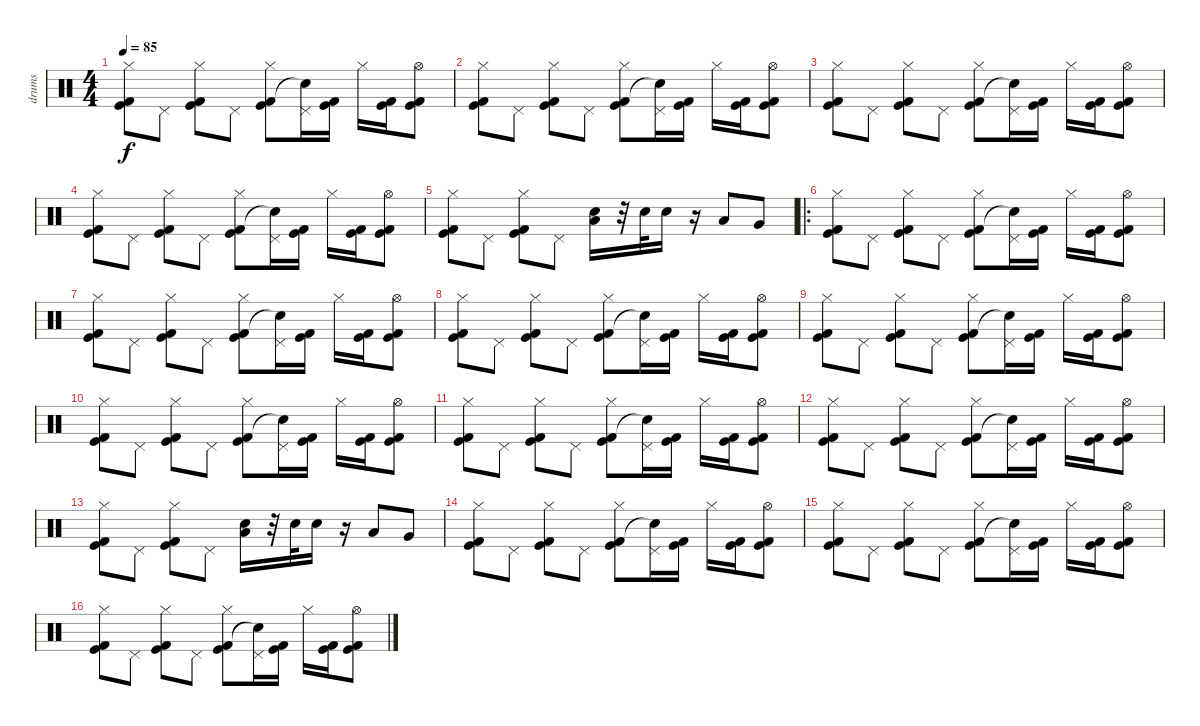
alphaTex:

\track ("drums" "drums") {instrument percussion}
\staff {score}
\articulation defaults
\ts (4 4)
\tempo 85
\clef neutral
\ks c
("Hi-Hat (closed)" "Kick (hit) 2" "Kick (hit)").8{dy f} "Pedal Hi-Hat (hit)".8 ("Hi-Hat (closed)" "Kick (hit) 2" "Kick (hit)").8 "Pedal Hi-Hat (hit)".8 ("Hi-Hat (closed)" "Kick (hit) 2" "Kick (hit)").8 ("Pedal Hi-Hat (hit)" "Snare (hit)"{t}).16 ("Kick (hit) 2" "Kick (hit)").16 "Hi-Hat (closed)".16 ("Kick (hit) 2" "Kick (hit)").16 ("Hi-Hat (open)" "Kick (hit) 2" "Kick (hit)").8 |
("Hi-Hat (closed)" "Kick (hit) 2" "Kick (hit)").8 "Pedal Hi-Hat (hit)".8 ("Hi-Hat (closed)" "Kick (hit) 2" "Kick (hit)").8 "Pedal Hi-Hat (hit)".8 ("Hi-Hat (closed)" "Kick (hit) 2" "Kick (hit)").8 ("Pedal Hi-Hat (hit)" "Snare (hit)"{t}).16 ("Kick (hit) 2" "Kick (hit)").16 "Hi-Hat (closed)".16 ("Kick (hit) 2" "Kick (hit)").16 ("Hi-Hat (open)" "Kick (hit) 2" "Kick (hit)").8 |
("Hi-Hat (closed)" "Kick (hit) 2" "Kick (hit)").8 "Pedal Hi-Hat (hit)".8 ("Hi-Hat (closed)" "Kick (hit) 2" "Kick (hit)").8 "Pedal Hi-Hat (hit)".8 ("Hi-Hat (closed)" "Kick (hit) 2" "Kick (hit)").8 ("Pedal Hi-Hat (hit)" "Snare (hit)"{t}).16 ("Kick (hit) 2" "Kick (hit)").16 "Hi-Hat (closed)".16 ("Kick (hit) 2" "Kick (hit)").16 ("Hi-Hat (open)" "Kick (hit) 2" "Kick (hit)").8 |
("Hi-Hat (closed)" "Kick (hit) 2" "Kick (hit)").8 "Pedal Hi-Hat (hit)".8 ("Hi-Hat (closed)" "Kick (hit) 2" "Kick (hit)").8 "Pedal Hi-Hat (hit)".8 ("Hi-Hat (closed)" "Kick (hit) 2" "Kick (hit)").8 ("Pedal Hi-Hat (hit)" "Snare (hit)"{t}).16 ("Kick (hit) 2" "Kick (hit)").16 "Hi-Hat (closed)".16 ("Kick (hit) 2" "Kick (hit)").16 ("Hi-Hat (open)" "Kick (hit) 2" "Kick (hit)").8 |
("Hi-Hat (closed)" "Kick (hit) 2" "Kick (hit)").8 "Pedal Hi-Hat (hit)".8 ("Hi-Hat (closed)" "Kick (hit) 2" "Kick (hit)").8 "Pedal Hi-Hat (hit)".8 ("Low Floor Tom (hit)" "Snare (hit) 2").16 r.32 "Snare (hit) 2".32 "Snare (hit) 2".16 r.16 "Low Tom (hit)".8 "Very Low Tom (hit)".8 |
\ro
("Hi-Hat (closed)" "Kick (hit) 2" "Kick (hit)").8 "Pedal Hi-Hat (hit)".8 ("Hi-Hat (closed)" "Kick (hit) 2" "Kick (hit)").8 "Pedal Hi-Hat (hit)".8 ("Hi-Hat (closed)" "Kick (hit) 2" "Kick (hit)").8 ("Pedal Hi-Hat (hit)" "Snare (hit)"{t}).16 ("Kick (hit) 2" "Kick (hit)").16 "Hi-Hat (closed)".16 ("Kick (hit) 2" "Kick (hit)").16 ("Hi-Hat (open)" "Kick (hit) 2" "Kick (hit)").8 |
("Hi-Hat (closed)" "Kick (hit) 2" "Kick (hit)").8 "Pedal Hi-Hat (hit)".8 ("Hi-Hat (closed)" "Kick (hit) 2" "Kick (hit)").8 "Pedal Hi-Hat (hit)".8 ("Hi-Hat (closed)" "Kick (hit) 2" "Kick (hit)").8 ("Pedal Hi-Hat (hit)" "Snare (hit)"{t}).16 ("Kick (hit) 2" "Kick (hit)").16 "Hi-Hat (closed)".16 ("Kick (hit) 2" "Kick (hit)").16 ("Hi-Hat (open)" "Kick (hit) 2" "Kick (hit)").8 |
("Hi-Hat (closed)" "Kick (hit) 2" "Kick (hit)").8 "Pedal Hi-Hat (hit)".8 ("Hi-Hat (closed)" "Kick (hit) 2" "Kick (hit)").8 "Pedal Hi-Hat (hit)".8 ("Hi-Hat (closed)" "Kick (hit) 2" "Kick (hit)").8 ("Pedal Hi-Hat (hit)" "Snare (hit)"{t}).16 ("Kick (hit) 2" "Kick (hit)").16 "Hi-Hat (closed)".16 ("Kick (hit) 2" "Kick (hit)").16 ("Hi-Hat (open)" "Kick (hit) 2" "Kick (hit)").8 |
("Hi-Hat (closed)" "Kick (hit) 2" "Kick (hit)").8 "Pedal Hi-Hat (hit)".8 ("Hi-Hat (closed)" "Kick (hit) 2" "Kick (hit)").8 "Pedal Hi-Hat (hit)".8 ("Hi-Hat (closed)" "Kick (hit) 2" "Kick (hit)").8 ("Pedal Hi-Hat (hit)" "Snare (hit)"{t}).16 ("Kick (hit) 2" "Kick (hit)").16 "Hi-Hat (closed)".16 ("Kick (hit) 2" "Kick (hit)").16 ("Hi-Hat (open)" "Kick (hit) 2" "Kick (hit)").8 |
("Hi-Hat (closed)" "Kick (hit) 2" "Kick (hit)").8 "Pedal Hi-Hat (hit)".8 ("Hi-Hat (closed)" "Kick (hit) 2" "Kick (hit)").8 "Pedal Hi-Hat (hit)".8 ("Hi-Hat (closed)" "Kick (hit) 2" "Kick (hit)").8 ("Pedal Hi-Hat (hit)" "Snare (hit)"{t}).16 ("Kick (hit) 2" "Kick (hit)").16 "Hi-Hat (closed)".16 ("Kick (hit) 2" "Kick (hit)").16 ("Hi-Hat (open)" "Kick (hit) 2" "Kick (hit)").8 |
("Hi-Hat (closed)" "Kick (hit) 2" "Kick (hit)").8 "Pedal Hi-Hat (hit)".8 ("Hi-Hat (closed)" "Kick (hit) 2" "Kick (hit)").8 "Pedal Hi-Hat (hit)".8 ("Hi-Hat (closed)" "Kick (hit) 2" "Kick (hit)").8 ("Pedal Hi-Hat (hit)" "Snare (hit)"{t}).16 ("Kick (hit) 2" "Kick (hit)").16 "Hi-Hat (closed)".16 ("Kick (hit) 2" "Kick (hit)").16 ("Hi-Hat (open)" "Kick (hit) 2" "Kick (hit)").8 |
("Hi-Hat (closed)" "Kick (hit) 2" "Kick (hit)").8 "Pedal Hi-Hat (hit)".8 ("Hi-Hat (closed)" "Kick (hit) 2" "Kick (hit)").8 "Pedal Hi-Hat (hit)".8 ("Hi-Hat (closed)" "Kick (hit) 2" "Kick (hit)").8 ("Pedal Hi-Hat (hit)" "Snare (hit)"{t}).16 ("Kick (hit) 2" "Kick (hit)").16 "Hi-Hat (closed)".16 ("Kick (hit) 2" "Kick (hit)").16 ("Hi-Hat (open)" "Kick (hit) 2" "Kick (hit)").8 |
("Hi-Hat (closed)" "Kick (hit) 2" "Kick (hit)").8 "Pedal Hi-Hat (hit)".8 ("Hi-Hat (closed)" "Kick (hit) 2" "Kick (hit)").8 "Pedal Hi-Hat (hit)".8 ("Low Floor Tom (hit)" "Snare (hit) 2").16 r.32 "Snare (hit) 2".32 "Snare (hit) 2".16 r.16 "Low Tom (hit)".8 "Very Low Tom (hit)".8 |
("Hi-Hat (closed)" "Kick (hit) 2" "Kick (hit)").8 "Pedal Hi-Hat (hit)".8 ("Hi-Hat (closed)" "Kick (hit) 2" "Kick (hit)").8 "Pedal Hi-Hat (hit)".8 ("Hi-Hat (closed)" "Kick (hit) 2" "Kick (hit)").8 ("Pedal Hi-Hat (hit)" "Snare (hit)"{t}).16 ("Kick (hit) 2" "Kick (hit)").16 "Hi-Hat (closed)".16 ("Kick (hit) 2" "Kick (hit)").16 ("Hi-Hat (open)" "Kick (hit) 2" "Kick (hit)").8 |
("Hi-Hat (closed)" "Kick (hit) 2" "Kick (hit)").8 "Pedal Hi-Hat (hit)".8 ("Hi-Hat (closed)" "Kick (hit) 2" "Kick (hit)").8 "Pedal Hi-Hat (hit)".8 ("Hi-Hat (closed)" "Kick (hit) 2" "Kick (hit)").8 ("Pedal Hi-Hat (hit)" "Snare (hit)"{t}).16 ("Kick (hit) 2" "Kick (hit)").16 "Hi-Hat (closed)".16 ("Kick (hit) 2" "Kick (hit)").16 ("Hi-Hat (open)" "Kick (hit) 2" "Kick (hit)").8 |
("Hi-Hat (closed)" "Kick (hit) 2" "Kick (hit)").8 "Pedal Hi-Hat (hit)".8 ("Hi-Hat (closed)" "Kick (hit) 2" "Kick (hit)").8 "Pedal Hi-Hat (hit)".8 ("Hi-Hat (closed)" "Kick (hit) 2" "Kick (hit)").8 ("Pedal Hi-Hat (hit)" "Snare (hit)"{t}).16 ("Kick (hit) 2" "Kick (hit)").16 "Hi-Hat (closed)".16 ("Kick (hit) 2" "Kick (hit)").16 ("Hi-Hat (open)" "Kick (hit) 2" "Kick (hit)").8
